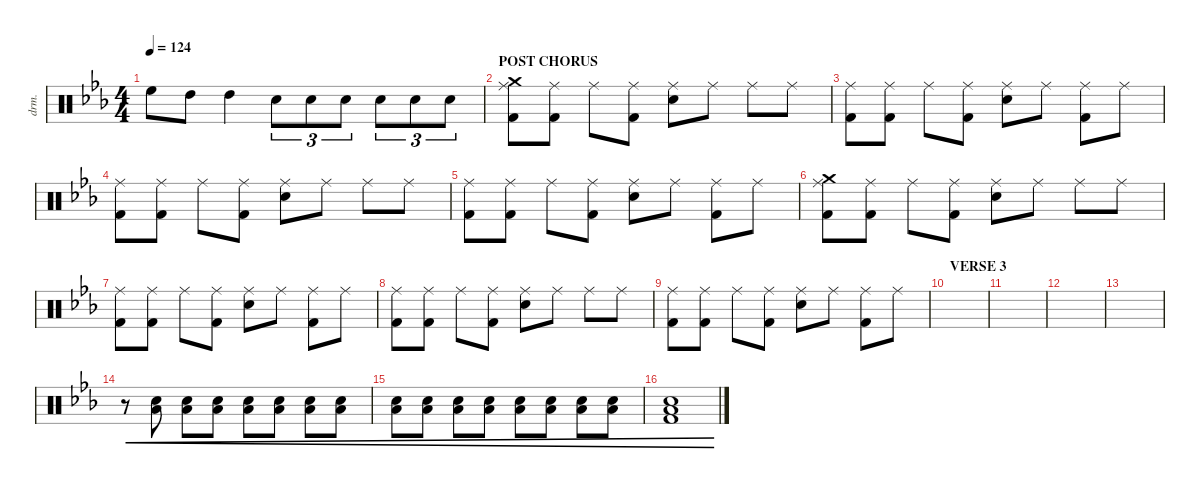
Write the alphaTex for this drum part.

\defaultSystemsLayout 4
\hideDynamics
\bracketExtendMode nobrackets
\otherSystemsTrackNameOrientation horizontal
\track ("Drumkit" "drm.") {instrument percussion}
\staff {score}
\articulation defaults
\ts (4 4)
\tempo 124
\clef neutral
\ks cminor "High Floor Tom (hit)"{acc forcenatural}.8{dy mf beam Down} "High Tom (hit)"{acc forcenatural}.8{beam Down} "High Tom (hit)"{acc forcenatural}.4{beam Down} "Snare (hit) 2"{acc forcenatural}.8{tu (3 2) beam Down} "Snare (hit) 2"{acc forcenatural}.8{tu (3 2) beam Down} "Snare (hit) 2"{acc forcenatural}.8{tu (3 2) beam Down} "Snare (hit) 2"{acc forcenatural}.8{tu (3 2) beam Down} "Snare (hit) 2"{acc forcenatural}.8{tu (3 2) beam Down} "Snare (hit) 2"{acc forcenatural}.8{tu (3 2) beam Down}
|
\section ("" "POST CHORUS")
("Ride (middle)"{acc forcenatural} "Kick (hit) 2"{acc forcenatural} "Crash medium (hit)"{acc forcenatural}).8{beam Down} ("Ride (middle)"{acc forcenatural} "Kick (hit) 2"{acc forcenatural}).8{beam Down} "Ride (middle)"{acc forcenatural}.8{beam Down} ("Ride (middle)"{acc forcenatural} "Kick (hit) 2"{acc forcenatural}).8{beam Down} ("Ride (middle)"{acc forcenatural} "Snare (hit) 2"{acc forcenatural}).8{beam Down} "Ride (middle)"{acc forcenatural}.8{beam Down} "Ride (middle)"{acc forcenatural}.8{beam Down} "Ride (middle)"{acc forcenatural}.8{beam Down} |
("Ride (middle)"{acc forcenatural} "Kick (hit) 2"{acc forcenatural}).8{beam Down} ("Ride (middle)"{acc forcenatural} "Kick (hit) 2"{acc forcenatural}).8{beam Down} "Ride (middle)"{acc forcenatural}.8{beam Down} ("Ride (middle)"{acc forcenatural} "Kick (hit) 2"{acc forcenatural}).8{beam Down} ("Ride (middle)"{acc forcenatural} "Snare (hit) 2"{acc forcenatural}).8{beam Down} "Ride (middle)"{acc forcenatural}.8{beam Down} ("Ride (middle)"{acc forcenatural} "Kick (hit) 2"{acc forcenatural}).8{beam Down} "Ride (middle)"{acc forcenatural}.8{beam Down} |
("Ride (middle)"{acc forcenatural} "Kick (hit) 2"{acc forcenatural}).8{beam Down} ("Ride (middle)"{acc forcenatural} "Kick (hit) 2"{acc forcenatural}).8{beam Down} "Ride (middle)"{acc forcenatural}.8{beam Down} ("Ride (middle)"{acc forcenatural} "Kick (hit) 2"{acc forcenatural}).8{beam Down} ("Ride (middle)"{acc forcenatural} "Snare (hit) 2"{acc forcenatural}).8{beam Down} "Ride (middle)"{acc forcenatural}.8{beam Down} "Ride (middle)"{acc forcenatural}.8{beam Down} "Ride (middle)"{acc forcenatural}.8{beam Down} |
("Ride (middle)"{acc forcenatural} "Kick (hit) 2"{acc forcenatural}).8{beam Down} ("Ride (middle)"{acc forcenatural} "Kick (hit) 2"{acc forcenatural}).8{beam Down} "Ride (middle)"{acc forcenatural}.8{beam Down} ("Ride (middle)"{acc forcenatural} "Kick (hit) 2"{acc forcenatural}).8{beam Down} ("Ride (middle)"{acc forcenatural} "Snare (hit) 2"{acc forcenatural}).8{beam Down} "Ride (middle)"{acc forcenatural}.8{beam Down} ("Ride (middle)"{acc forcenatural} "Kick (hit) 2"{acc forcenatural}).8{beam Down} "Ride (middle)"{acc forcenatural}.8{beam Down} |
("Ride (middle)"{acc forcenatural} "Kick (hit) 2"{acc forcenatural} "Crash medium (hit)"{acc forcenatural}).8{beam Down} ("Ride (middle)"{acc forcenatural} "Kick (hit) 2"{acc forcenatural}).8{beam Down} "Ride (middle)"{acc forcenatural}.8{beam Down} ("Ride (middle)"{acc forcenatural} "Kick (hit) 2"{acc forcenatural}).8{beam Down} ("Ride (middle)"{acc forcenatural} "Snare (hit) 2"{acc forcenatural}).8{beam Down} "Ride (middle)"{acc forcenatural}.8{beam Down} "Ride (middle)"{acc forcenatural}.8{beam Down} "Ride (middle)"{acc forcenatural}.8{beam Down} |
("Ride (middle)"{acc forcenatural} "Kick (hit) 2"{acc forcenatural}).8{beam Down} ("Ride (middle)"{acc forcenatural} "Kick (hit) 2"{acc forcenatural}).8{beam Down} "Ride (middle)"{acc forcenatural}.8{beam Down} ("Ride (middle)"{acc forcenatural} "Kick (hit) 2"{acc forcenatural}).8{beam Down} ("Ride (middle)"{acc forcenatural} "Snare (hit) 2"{acc forcenatural}).8{beam Down} "Ride (middle)"{acc forcenatural}.8{beam Down} ("Ride (middle)"{acc forcenatural} "Kick (hit) 2"{acc forcenatural}).8{beam Down} "Ride (middle)"{acc forcenatural}.8{beam Down} |
("Ride (middle)"{acc forcenatural} "Kick (hit) 2"{acc forcenatural}).8{beam Down} ("Ride (middle)"{acc forcenatural} "Kick (hit) 2"{acc forcenatural}).8{beam Down} "Ride (middle)"{acc forcenatural}.8{beam Down} ("Ride (middle)"{acc forcenatural} "Kick (hit) 2"{acc forcenatural}).8{beam Down} ("Ride (middle)"{acc forcenatural} "Snare (hit) 2"{acc forcenatural}).8{beam Down} "Ride (middle)"{acc forcenatural}.8{beam Down} "Ride (middle)"{acc forcenatural}.8{beam Down} "Ride (middle)"{acc forcenatural}.8{beam Down} |
("Ride (middle)"{acc forcenatural} "Kick (hit) 2"{acc forcenatural}).8{beam Down} ("Ride (middle)"{acc forcenatural} "Kick (hit) 2"{acc forcenatural}).8{beam Down} "Ride (middle)"{acc forcenatural}.8{beam Down} ("Ride (middle)"{acc forcenatural} "Kick (hit) 2"{acc forcenatural}).8{beam Down} ("Ride (middle)"{acc forcenatural} "Snare (hit) 2"{acc forcenatural}).8{beam Down} "Ride (middle)"{acc forcenatural}.8{beam Down} ("Ride (middle)"{acc forcenatural} "Kick (hit) 2"{acc forcenatural}).8{beam Down} "Ride (middle)"{acc forcenatural}.8{beam Down} |
\section ("" "VERSE 3")
|
|
|
|
r.8{cre beam Down} ("Snare (hit) 2"{acc forcenatural} "Low Tom (hit)"{acc forcenatural}).8{cre beam Down} ("Snare (hit) 2"{acc forcenatural} "Low Tom (hit)"{acc forcenatural}).8{cre beam Down} ("Snare (hit) 2"{acc forcenatural} "Low Tom (hit)"{acc forcenatural}).8{cre beam Down} ("Snare (hit) 2"{acc forcenatural} "Low Tom (hit)"{acc forcenatural}).8{cre beam Down} ("Snare (hit) 2"{acc forcenatural} "Low Tom (hit)"{acc forcenatural}).8{cre beam Down} ("Snare (hit) 2"{acc forcenatural} "Low Tom (hit)"{acc forcenatural}).8{cre beam Down} ("Snare (hit) 2"{acc forcenatural} "Low Tom (hit)"{acc forcenatural}).8{cre beam Down} |
("Snare (hit) 2"{acc forcenatural} "Low Tom (hit)"{acc forcenatural}).8{cre beam Down} ("Snare (hit) 2"{acc forcenatural} "Low Tom (hit)"{acc forcenatural}).8{cre beam Down} ("Snare (hit) 2"{acc forcenatural} "Low Tom (hit)"{acc forcenatural}).8{cre beam Down} ("Snare (hit) 2"{acc forcenatural} "Low Tom (hit)"{acc forcenatural}).8{cre beam Down} ("Snare (hit) 2"{acc forcenatural} "Low Tom (hit)"{acc forcenatural}).8{cre beam Down} ("Snare (hit) 2"{acc forcenatural} "Low Tom (hit)"{acc forcenatural}).8{cre beam Down} ("Snare (hit) 2"{acc forcenatural} "Low Tom (hit)"{acc forcenatural}).8{cre beam Down} ("Snare (hit) 2"{acc forcenatural} "Low Tom (hit)"{acc forcenatural}).8{cre beam Down} |
("Snare (hit) 2"{acc forcenatural} "Kick (hit) 2"{acc forcenatural} "Low Tom (hit)"{acc forcenatural}).1{cre beam Up}
